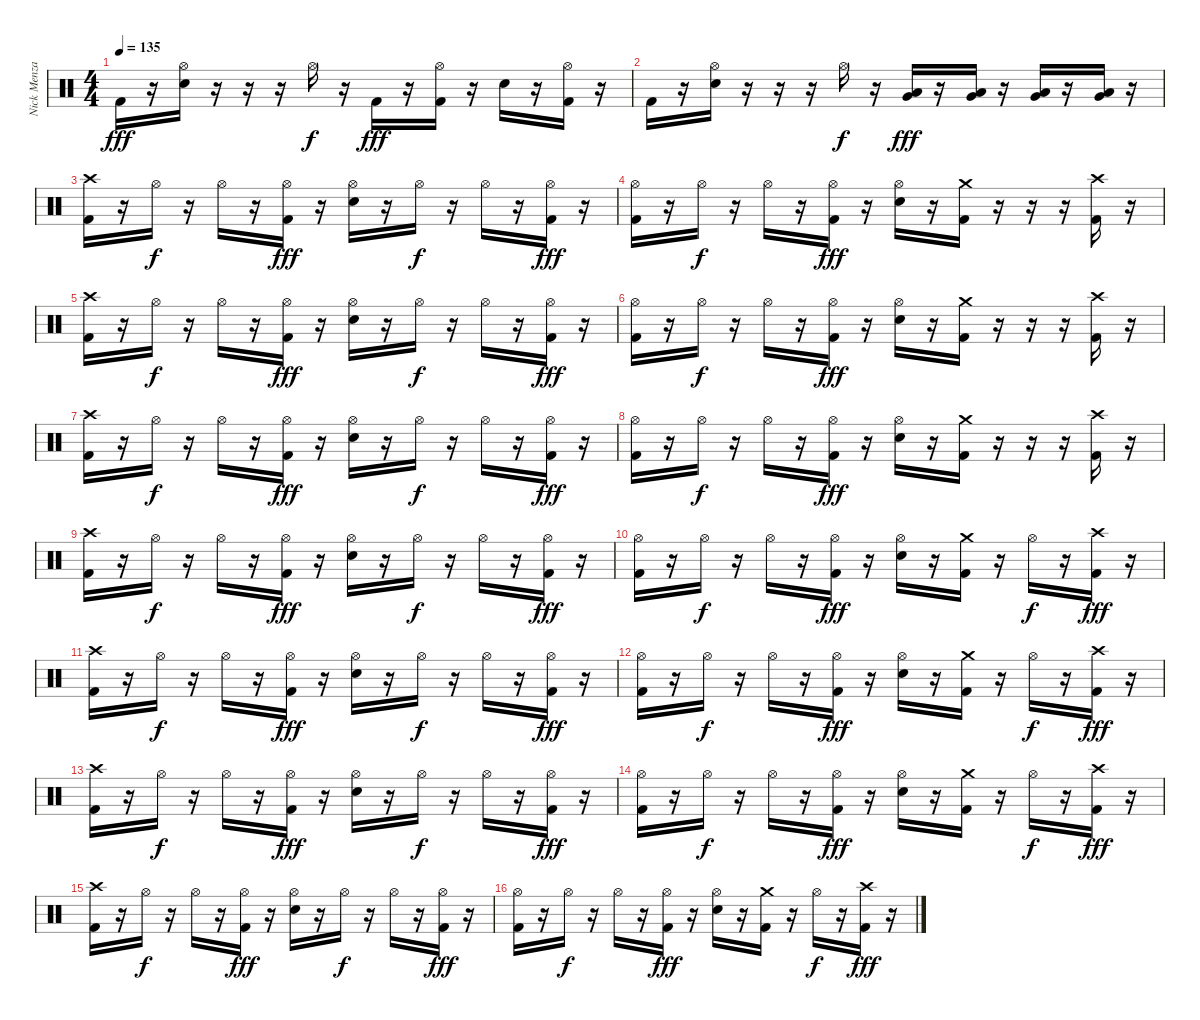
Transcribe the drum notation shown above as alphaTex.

\track ("Nick Menza" "Nick Menza") {instrument percussion}
\staff {score}
\articulation defaults
\ts (4 4)
\tempo 135
\clef neutral
\ks c "Kick (hit) 2".16{dy fff}
r.16 ("Electric Snare (hit)" "Hi-Hat (open)").16 r.16 r.16 r.16 "Hi-Hat (open)".16{dy f} r.16 "Kick (hit) 2".16{dy fff} r.16 ("Kick (hit) 2" "Hi-Hat (open)").16 r.16 "Electric Snare (hit)".16 r.16 ("Kick (hit) 2" "Hi-Hat (open)").16 r.16 |
"Kick (hit) 2".16 r.16 ("Electric Snare (hit)" "Hi-Hat (open)").16 r.16 r.16 r.16 "Hi-Hat (open)".16{dy f} r.16 ("Low Tom (hit)" "Very Low Tom (hit)").16{dy fff} r.16 ("Low Tom (hit)" "Very Low Tom (hit)").16 r.16 ("Very Low Tom (hit)" "Low Floor Tom (hit)").16 r.16 ("Very Low Tom (hit)" "Low Floor Tom (hit)").16 r.16 |
("Kick (hit) 2" "Crash high (hit)").16 r.16 "Hi-Hat (open)".16{dy f} r.16 "Hi-Hat (open)".16 r.16 ("Kick (hit) 2" "Hi-Hat (open)").16{dy fff} r.16 ("Electric Snare (hit)" "Hi-Hat (open)").16 r.16 "Hi-Hat (open)".16{dy f} r.16 "Hi-Hat (open)".16 r.16 ("Kick (hit) 2" "Hi-Hat (open)").16{dy fff} r.16 |
("Kick (hit) 2" "Hi-Hat (open)").16 r.16 "Hi-Hat (open)".16{dy f} r.16 "Hi-Hat (open)".16 r.16 ("Kick (hit) 2" "Hi-Hat (open)").16{dy fff} r.16 ("Electric Snare (hit)" "Hi-Hat (open)").16 r.16 ("Kick (hit) 2" "Crash medium (hit)").16 r.16 r.16 r.16 ("Kick (hit) 2" "Crash high (hit)").16 r.16 |
("Kick (hit) 2" "Crash high (hit)").16 r.16 "Hi-Hat (open)".16{dy f} r.16 "Hi-Hat (open)".16 r.16 ("Kick (hit) 2" "Hi-Hat (open)").16{dy fff} r.16 ("Electric Snare (hit)" "Hi-Hat (open)").16 r.16 "Hi-Hat (open)".16{dy f} r.16 "Hi-Hat (open)".16 r.16 ("Kick (hit) 2" "Hi-Hat (open)").16{dy fff} r.16 |
("Kick (hit) 2" "Hi-Hat (open)").16 r.16 "Hi-Hat (open)".16{dy f} r.16 "Hi-Hat (open)".16 r.16 ("Kick (hit) 2" "Hi-Hat (open)").16{dy fff} r.16 ("Electric Snare (hit)" "Hi-Hat (open)").16 r.16 ("Kick (hit) 2" "Crash medium (hit)").16 r.16 r.16 r.16 ("Kick (hit) 2" "Crash high (hit)").16 r.16 |
("Kick (hit) 2" "Crash high (hit)").16 r.16 "Hi-Hat (open)".16{dy f} r.16 "Hi-Hat (open)".16 r.16 ("Kick (hit) 2" "Hi-Hat (open)").16{dy fff} r.16 ("Electric Snare (hit)" "Hi-Hat (open)").16 r.16 "Hi-Hat (open)".16{dy f} r.16 "Hi-Hat (open)".16 r.16 ("Kick (hit) 2" "Hi-Hat (open)").16{dy fff} r.16 |
("Kick (hit) 2" "Hi-Hat (open)").16 r.16 "Hi-Hat (open)".16{dy f} r.16 "Hi-Hat (open)".16 r.16 ("Kick (hit) 2" "Hi-Hat (open)").16{dy fff} r.16 ("Electric Snare (hit)" "Hi-Hat (open)").16 r.16 ("Kick (hit) 2" "Crash medium (hit)").16 r.16 r.16 r.16 ("Kick (hit) 2" "Crash high (hit)").16 r.16 |
("Kick (hit) 2" "Crash high (hit)").16 r.16 "Hi-Hat (open)".16{dy f} r.16 "Hi-Hat (open)".16 r.16 ("Kick (hit) 2" "Hi-Hat (open)").16{dy fff} r.16 ("Electric Snare (hit)" "Hi-Hat (open)").16 r.16 "Hi-Hat (open)".16{dy f} r.16 "Hi-Hat (open)".16 r.16 ("Kick (hit) 2" "Hi-Hat (open)").16{dy fff} r.16 |
("Kick (hit) 2" "Hi-Hat (open)").16 r.16 "Hi-Hat (open)".16{dy f} r.16 "Hi-Hat (open)".16 r.16 ("Kick (hit) 2" "Hi-Hat (open)").16{dy fff} r.16 ("Electric Snare (hit)" "Hi-Hat (open)").16 r.16 ("Kick (hit) 2" "Crash medium (hit)").16 r.16 "Hi-Hat (open)".16{dy f} r.16 ("Kick (hit) 2" "Crash high (hit)").16{dy fff} r.16 |
("Kick (hit) 2" "Crash high (hit)").16 r.16 "Hi-Hat (open)".16{dy f} r.16 "Hi-Hat (open)".16 r.16 ("Kick (hit) 2" "Hi-Hat (open)").16{dy fff} r.16 ("Electric Snare (hit)" "Hi-Hat (open)").16 r.16 "Hi-Hat (open)".16{dy f} r.16 "Hi-Hat (open)".16 r.16 ("Kick (hit) 2" "Hi-Hat (open)").16{dy fff} r.16 |
("Kick (hit) 2" "Hi-Hat (open)").16 r.16 "Hi-Hat (open)".16{dy f} r.16 "Hi-Hat (open)".16 r.16 ("Kick (hit) 2" "Hi-Hat (open)").16{dy fff} r.16 ("Electric Snare (hit)" "Hi-Hat (open)").16 r.16 ("Kick (hit) 2" "Crash medium (hit)").16 r.16 "Hi-Hat (open)".16{dy f} r.16 ("Kick (hit) 2" "Crash high (hit)").16{dy fff} r.16 |
("Kick (hit) 2" "Crash high (hit)").16 r.16 "Hi-Hat (open)".16{dy f} r.16 "Hi-Hat (open)".16 r.16 ("Kick (hit) 2" "Hi-Hat (open)").16{dy fff} r.16 ("Electric Snare (hit)" "Hi-Hat (open)").16 r.16 "Hi-Hat (open)".16{dy f} r.16 "Hi-Hat (open)".16 r.16 ("Kick (hit) 2" "Hi-Hat (open)").16{dy fff} r.16 |
("Kick (hit) 2" "Hi-Hat (open)").16 r.16 "Hi-Hat (open)".16{dy f} r.16 "Hi-Hat (open)".16 r.16 ("Kick (hit) 2" "Hi-Hat (open)").16{dy fff} r.16 ("Electric Snare (hit)" "Hi-Hat (open)").16 r.16 ("Kick (hit) 2" "Crash medium (hit)").16 r.16 "Hi-Hat (open)".16{dy f} r.16 ("Kick (hit) 2" "Crash high (hit)").16{dy fff} r.16 |
("Kick (hit) 2" "Crash high (hit)").16 r.16 "Hi-Hat (open)".16{dy f} r.16 "Hi-Hat (open)".16 r.16 ("Kick (hit) 2" "Hi-Hat (open)").16{dy fff} r.16 ("Electric Snare (hit)" "Hi-Hat (open)").16 r.16 "Hi-Hat (open)".16{dy f} r.16 "Hi-Hat (open)".16 r.16 ("Kick (hit) 2" "Hi-Hat (open)").16{dy fff} r.16 |
("Kick (hit) 2" "Hi-Hat (open)").16 r.16 "Hi-Hat (open)".16{dy f} r.16 "Hi-Hat (open)".16 r.16 ("Kick (hit) 2" "Hi-Hat (open)").16{dy fff} r.16 ("Electric Snare (hit)" "Hi-Hat (open)").16 r.16 ("Kick (hit) 2" "Crash medium (hit)").16 r.16 "Hi-Hat (open)".16{dy f} r.16 ("Kick (hit) 2" "Crash high (hit)").16{dy fff} r.16
